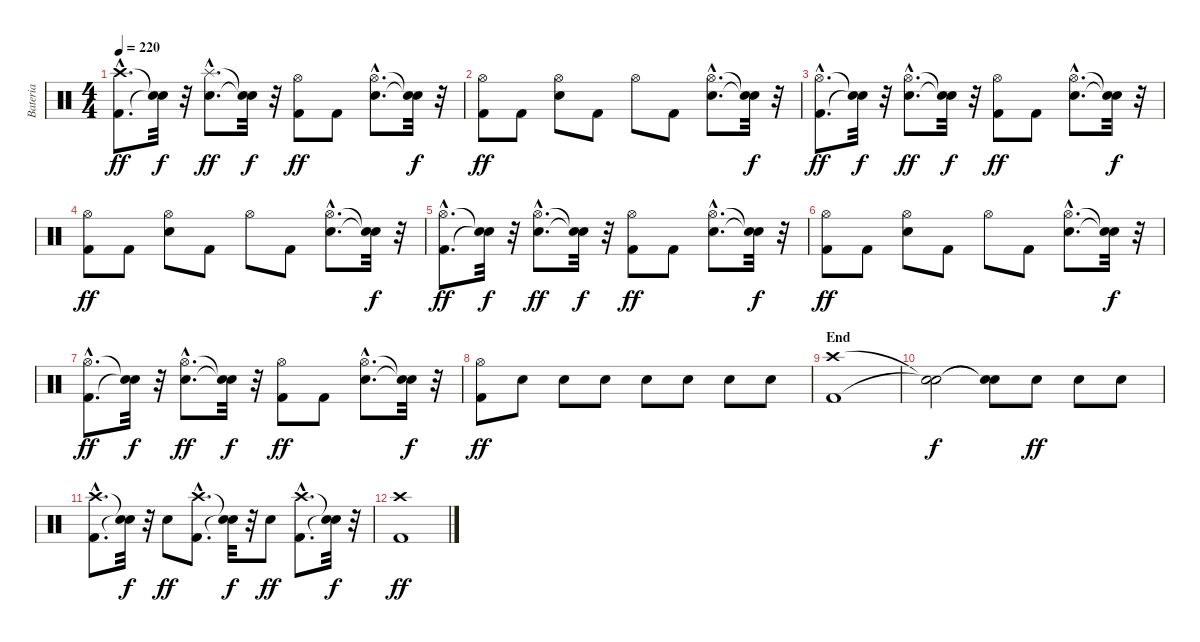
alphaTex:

\track ("Bateria" "Bateria") {instrument percussion}
\staff {score}
\articulation defaults
\ts (4 4)
\tempo 220
\clef neutral
\ks c
("Kick (hit) 2"{hac} "Crash high (hit)"{hac}).8{d dy ff} ("Snare (hit)"{t} "Snare (hit)"{t}).32{dy f} r.32 ("Electric Snare (hit)"{hac} "Splash (hit)"{hac}).8{d dy ff} ("Snare (hit)"{t} "Snare (hit)"{t}).32{dy f} r.32 ("Kick (hit) 2" "Hi-Hat (open)").8{dy ff} "Kick (hit) 2".8 ("Electric Snare (hit)"{hac} "Hi-Hat (open)"{hac}).8{d} ("Snare (hit)"{t} "Snare (hit)"{t}).32{dy f} r.32 |
("Kick (hit) 2" "Hi-Hat (open)").8{dy ff} "Kick (hit) 2".8 ("Electric Snare (hit)" "Hi-Hat (open)").8 "Kick (hit) 2".8 "Hi-Hat (open)".8 "Kick (hit) 2".8 ("Electric Snare (hit)"{hac} "Hi-Hat (open)"{hac}).8{d} ("Snare (hit)"{t} "Snare (hit)"{t}).32{dy f} r.32 |
("Kick (hit) 2"{hac} "Hi-Hat (open)"{hac}).8{d dy ff} ("Snare (hit)"{t} "Snare (hit)"{t}).32{dy f} r.32 ("Electric Snare (hit)"{hac} "Hi-Hat (open)"{hac}).8{d dy ff} ("Snare (hit)"{t} "Snare (hit)"{t}).32{dy f} r.32 ("Kick (hit) 2" "Hi-Hat (open)").8{dy ff} "Kick (hit) 2".8 ("Electric Snare (hit)"{hac} "Hi-Hat (open)"{hac}).8{d} ("Snare (hit)"{t} "Snare (hit)"{t}).32{dy f} r.32 |
("Kick (hit) 2" "Hi-Hat (open)").8{dy ff} "Kick (hit) 2".8 ("Electric Snare (hit)" "Hi-Hat (open)").8 "Kick (hit) 2".8 "Hi-Hat (open)".8 "Kick (hit) 2".8 ("Electric Snare (hit)"{hac} "Hi-Hat (open)"{hac}).8{d} ("Snare (hit)"{t} "Snare (hit)"{t}).32{dy f} r.32 |
("Kick (hit) 2"{hac} "Hi-Hat (open)"{hac}).8{d dy ff} ("Snare (hit)"{t} "Snare (hit)"{t}).32{dy f} r.32 ("Electric Snare (hit)"{hac} "Hi-Hat (open)"{hac}).8{d dy ff} ("Snare (hit)"{t} "Snare (hit)"{t}).32{dy f} r.32 ("Kick (hit) 2" "Hi-Hat (open)").8{dy ff} "Kick (hit) 2".8 ("Electric Snare (hit)"{hac} "Hi-Hat (open)"{hac}).8{d} ("Snare (hit)"{t} "Snare (hit)"{t}).32{dy f} r.32 |
("Kick (hit) 2" "Hi-Hat (open)").8{dy ff} "Kick (hit) 2".8 ("Electric Snare (hit)" "Hi-Hat (open)").8 "Kick (hit) 2".8 "Hi-Hat (open)".8 "Kick (hit) 2".8 ("Electric Snare (hit)"{hac} "Hi-Hat (open)"{hac}).8{d} ("Snare (hit)"{t} "Snare (hit)"{t}).32{dy f} r.32 |
("Kick (hit) 2"{hac} "Hi-Hat (open)"{hac}).8{d dy ff} ("Snare (hit)"{t} "Snare (hit)"{t}).32{dy f} r.32 ("Electric Snare (hit)"{hac} "Hi-Hat (open)"{hac}).8{d dy ff} ("Snare (hit)"{t} "Snare (hit)"{t}).32{dy f} r.32 ("Kick (hit) 2" "Hi-Hat (open)").8{dy ff} "Kick (hit) 2".8 ("Electric Snare (hit)"{hac} "Hi-Hat (open)"{hac}).8{d} ("Snare (hit)"{t} "Snare (hit)"{t}).32{dy f} r.32 |
("Kick (hit) 2" "Hi-Hat (open)").8{dy ff} "Electric Snare (hit)".8 "Electric Snare (hit)".8 "Electric Snare (hit)".8 "Electric Snare (hit)".8 "Electric Snare (hit)".8 "Electric Snare (hit)".8 "Electric Snare (hit)".8 |
\section ("" "End")
("Kick (hit) 2" "Crash high (hit)").1 |
("Snare (hit)"{t} "Snare (hit)"{t}).2{dy f} ("Snare (hit)"{t} "Snare (hit)"{t}).8 "Electric Snare (hit)".8{dy ff} "Electric Snare (hit)".8 "Electric Snare (hit)".8 |
("Kick (hit) 2"{hac} "Crash high (hit)"{hac}).8{d} ("Snare (hit)"{t} "Snare (hit)"{t}).32{dy f} r.32 "Electric Snare (hit)".8{dy ff} ("Kick (hit) 2"{hac} "Crash high (hit)"{hac}).8{d} ("Snare (hit)"{t} "Snare (hit)"{t}).32{dy f} r.32 "Electric Snare (hit)".8{dy ff} ("Kick (hit) 2"{hac} "Crash high (hit)"{hac}).8{d} ("Snare (hit)"{t} "Snare (hit)"{t}).32{dy f} r.32 |
("Kick (hit) 2" "Crash high (hit)").1{dy ff}
